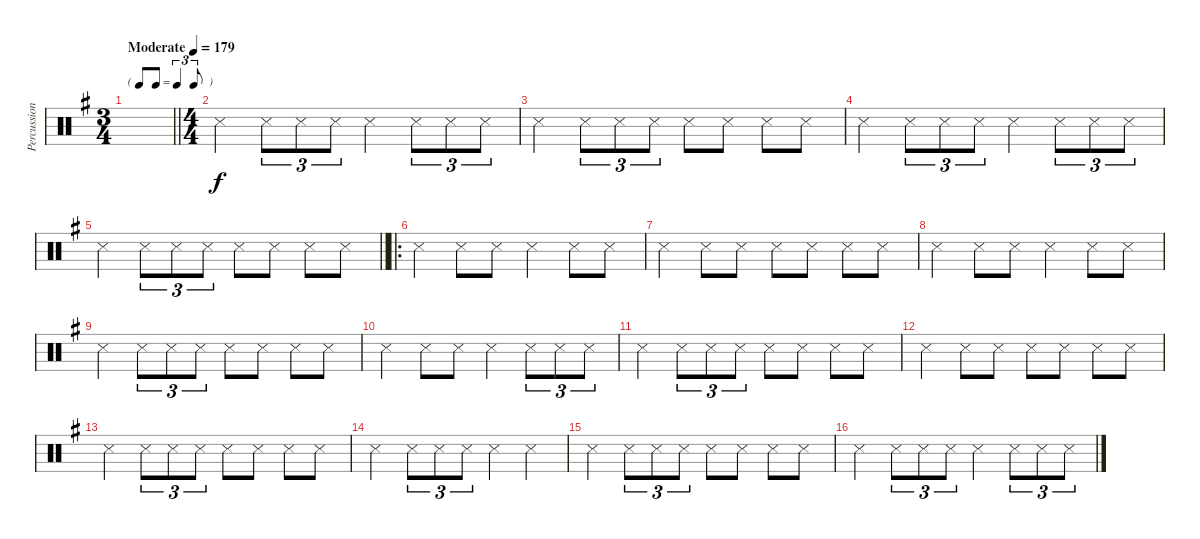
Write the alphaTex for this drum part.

\track ("Percussion" "Percussion") {instrument percussion}
\staff {score}
\articulation defaults
\ts (3 4)
\tf triplet8th
\tempo (179 "Moderate")
\clef neutral
\barLineRight lightlight
\ks g
|
\ts (4 4)
"Snare (side stick) 3".4 "Snare (side stick) 3".8{tu (3 2)} "Snare (side stick) 3".8{tu (3 2)} "Snare (side stick) 3".8{tu (3 2)} "Snare (side stick) 3".4 "Snare (side stick) 3".8{tu (3 2)} "Snare (side stick) 3".8{tu (3 2)} "Snare (side stick) 3".8{tu (3 2)} |
"Snare (side stick) 3".4 "Snare (side stick) 3".8{tu (3 2)} "Snare (side stick) 3".8{tu (3 2)} "Snare (side stick) 3".8{tu (3 2)} "Snare (side stick) 3".8 "Snare (side stick) 3".8 "Snare (side stick) 3".8 "Snare (side stick) 3".8 |
"Snare (side stick) 3".4 "Snare (side stick) 3".8{tu (3 2)} "Snare (side stick) 3".8{tu (3 2)} "Snare (side stick) 3".8{tu (3 2)} "Snare (side stick) 3".4 "Snare (side stick) 3".8{tu (3 2)} "Snare (side stick) 3".8{tu (3 2)} "Snare (side stick) 3".8{tu (3 2)} |
\barLineRight lightlight "Snare (side stick) 3".4 "Snare (side stick) 3".8{tu (3 2)} "Snare (side stick) 3".8{tu (3 2)} "Snare (side stick) 3".8{tu (3 2)} "Snare (side stick) 3".8 "Snare (side stick) 3".8 "Snare (side stick) 3".8 "Snare (side stick) 3".8
|
\ro "Snare (side stick) 3".4 "Snare (side stick) 3".8 "Snare (side stick) 3".8 "Snare (side stick) 3".4 "Snare (side stick) 3".8 "Snare (side stick) 3".8
|
"Snare (side stick) 3".4 "Snare (side stick) 3".8 "Snare (side stick) 3".8 "Snare (side stick) 3".8 "Snare (side stick) 3".8 "Snare (side stick) 3".8 "Snare (side stick) 3".8 |
"Snare (side stick) 3".4 "Snare (side stick) 3".8 "Snare (side stick) 3".8 "Snare (side stick) 3".4 "Snare (side stick) 3".8 "Snare (side stick) 3".8 |
"Snare (side stick) 3".4 "Snare (side stick) 3".8{tu (3 2)} "Snare (side stick) 3".8{tu (3 2)} "Snare (side stick) 3".8{tu (3 2)} "Snare (side stick) 3".8 "Snare (side stick) 3".8 "Snare (side stick) 3".8 "Snare (side stick) 3".8 |
"Snare (side stick) 3".4 "Snare (side stick) 3".8 "Snare (side stick) 3".8 "Snare (side stick) 3".4 "Snare (side stick) 3".8{tu (3 2)} "Snare (side stick) 3".8{tu (3 2)} "Snare (side stick) 3".8{tu (3 2)} |
"Snare (side stick) 3".4 "Snare (side stick) 3".8{tu (3 2)} "Snare (side stick) 3".8{tu (3 2)} "Snare (side stick) 3".8{tu (3 2)} "Snare (side stick) 3".8 "Snare (side stick) 3".8 "Snare (side stick) 3".8 "Snare (side stick) 3".8 |
"Snare (side stick) 3".4 "Snare (side stick) 3".8 "Snare (side stick) 3".8 "Snare (side stick) 3".8 "Snare (side stick) 3".8 "Snare (side stick) 3".8 "Snare (side stick) 3".8 |
"Snare (side stick) 3".4 "Snare (side stick) 3".8{tu (3 2)} "Snare (side stick) 3".8{tu (3 2)} "Snare (side stick) 3".8{tu (3 2)} "Snare (side stick) 3".8 "Snare (side stick) 3".8 "Snare (side stick) 3".8 "Snare (side stick) 3".8 |
"Snare (side stick) 3".4 "Snare (side stick) 3".8{tu (3 2)} "Snare (side stick) 3".8{tu (3 2)} "Snare (side stick) 3".8{tu (3 2)} "Snare (side stick) 3".4 "Snare (side stick) 3".4 |
"Snare (side stick) 3".4 "Snare (side stick) 3".8{tu (3 2)} "Snare (side stick) 3".8{tu (3 2)} "Snare (side stick) 3".8{tu (3 2)} "Snare (side stick) 3".8 "Snare (side stick) 3".8 "Snare (side stick) 3".8 "Snare (side stick) 3".8 |
"Snare (side stick) 3".4 "Snare (side stick) 3".8{tu (3 2)} "Snare (side stick) 3".8{tu (3 2)} "Snare (side stick) 3".8{tu (3 2)} "Snare (side stick) 3".4 "Snare (side stick) 3".8{tu (3 2)} "Snare (side stick) 3".8{tu (3 2)} "Snare (side stick) 3".8{tu (3 2)}
